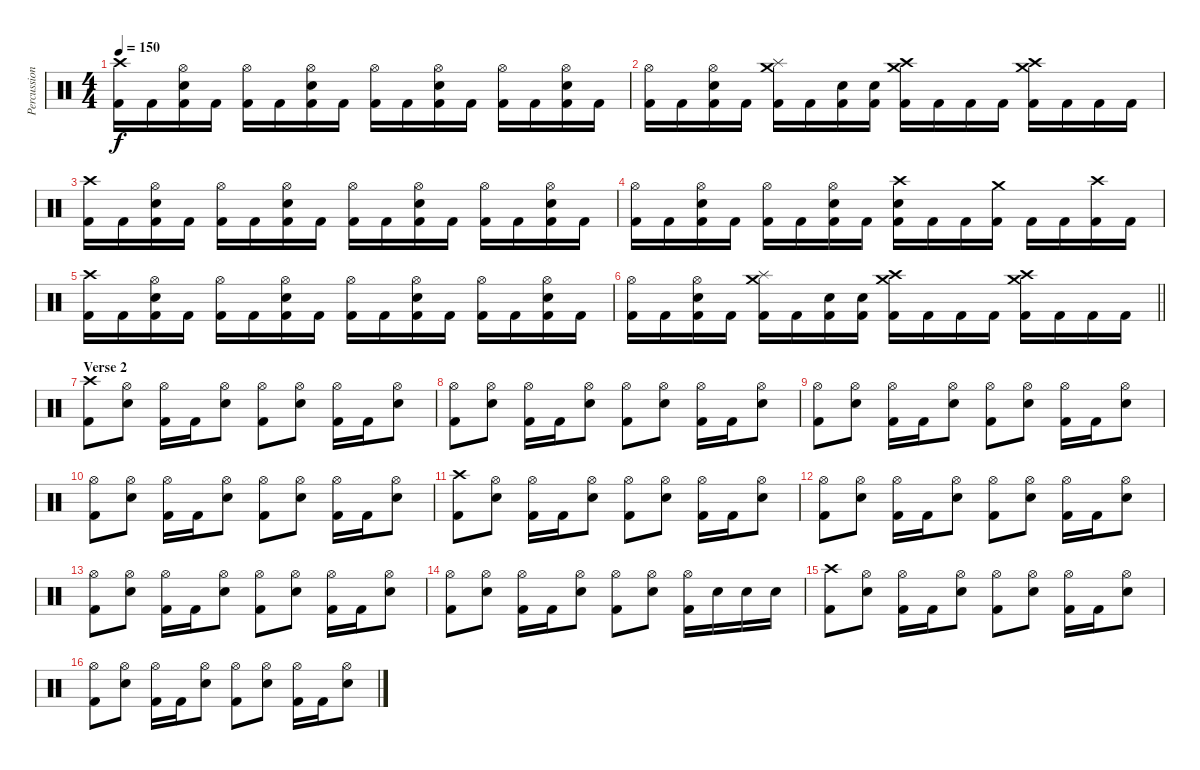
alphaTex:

\track ("Percussion" "Percussion") {instrument percussion}
\staff {score}
\articulation defaults
\ts (4 4)
\tempo 150
\clef neutral
\ks c
("Crash high (hit)" "Kick (hit) 2").16{dy f} "Kick (hit) 2".16 ("Hi-Hat (open)" "Electric Snare (hit)" "Kick (hit) 2").16 "Kick (hit) 2".16 ("Hi-Hat (open)" "Kick (hit) 2").16 "Kick (hit) 2".16 ("Hi-Hat (open)" "Electric Snare (hit)" "Kick (hit) 2").16 "Kick (hit) 2".16 ("Hi-Hat (open)" "Kick (hit) 2").16 "Kick (hit) 2".16 ("Hi-Hat (open)" "Electric Snare (hit)" "Kick (hit) 2").16 "Kick (hit) 2".16 ("Hi-Hat (open)" "Kick (hit) 2").16 "Kick (hit) 2".16 ("Hi-Hat (open)" "Electric Snare (hit)" "Kick (hit) 2").16 "Kick (hit) 2".16 |
("Hi-Hat (open)" "Kick (hit) 2").16 "Kick (hit) 2".16 ("Hi-Hat (open)" "Electric Snare (hit)" "Kick (hit) 2").16 "Kick (hit) 2".16 ("Splash (hit)" "Crash medium (hit)" "Kick (hit) 2").16 "Kick (hit) 2".16 ("Electric Snare (hit)" "Kick (hit) 2").16 ("Electric Snare (hit)" "Kick (hit) 2").16 ("Crash high (hit)" "Crash medium (hit)" "Kick (hit) 2").16 "Kick (hit) 2".16 "Kick (hit) 2".16 "Kick (hit) 2".16 ("Crash medium (hit)" "Crash high (hit)" "Kick (hit) 2").16 "Kick (hit) 2".16 "Kick (hit) 2".16 "Kick (hit) 2".16 |
("Crash high (hit)" "Kick (hit) 2").16 "Kick (hit) 2".16 ("Hi-Hat (open)" "Electric Snare (hit)" "Kick (hit) 2").16 "Kick (hit) 2".16 ("Hi-Hat (open)" "Kick (hit) 2").16 "Kick (hit) 2".16 ("Hi-Hat (open)" "Electric Snare (hit)" "Kick (hit) 2").16 "Kick (hit) 2".16 ("Hi-Hat (open)" "Kick (hit) 2").16 "Kick (hit) 2".16 ("Hi-Hat (open)" "Electric Snare (hit)" "Kick (hit) 2").16 "Kick (hit) 2".16 ("Hi-Hat (open)" "Kick (hit) 2").16 "Kick (hit) 2".16 ("Hi-Hat (open)" "Electric Snare (hit)" "Kick (hit) 2").16 "Kick (hit) 2".16 |
("Hi-Hat (open)" "Kick (hit) 2").16 "Kick (hit) 2".16 ("Hi-Hat (open)" "Electric Snare (hit)" "Kick (hit) 2").16 "Kick (hit) 2".16 ("Hi-Hat (open)" "Kick (hit) 2").16 "Kick (hit) 2".16 ("Hi-Hat (open)" "Electric Snare (hit)" "Kick (hit) 2").16 "Kick (hit) 2".16 ("Crash high (hit)" "Electric Snare (hit)" "Kick (hit) 2").16 "Kick (hit) 2".16 "Kick (hit) 2".16 ("Crash medium (hit)" "Kick (hit) 2").16 "Kick (hit) 2".16 "Kick (hit) 2".16 ("Crash high (hit)" "Kick (hit) 2").16 "Kick (hit) 2".16 |
("Crash high (hit)" "Kick (hit) 2").16 "Kick (hit) 2".16 ("Hi-Hat (open)" "Electric Snare (hit)" "Kick (hit) 2").16 "Kick (hit) 2".16 ("Hi-Hat (open)" "Kick (hit) 2").16 "Kick (hit) 2".16 ("Hi-Hat (open)" "Electric Snare (hit)" "Kick (hit) 2").16 "Kick (hit) 2".16 ("Hi-Hat (open)" "Kick (hit) 2").16 "Kick (hit) 2".16 ("Hi-Hat (open)" "Electric Snare (hit)" "Kick (hit) 2").16 "Kick (hit) 2".16 ("Hi-Hat (open)" "Kick (hit) 2").16 "Kick (hit) 2".16 ("Hi-Hat (open)" "Electric Snare (hit)" "Kick (hit) 2").16 "Kick (hit) 2".16 |
\barLineRight lightlight
("Hi-Hat (open)" "Kick (hit) 2").16 "Kick (hit) 2".16 ("Hi-Hat (open)" "Electric Snare (hit)" "Kick (hit) 2").16 "Kick (hit) 2".16 ("Splash (hit)" "Crash medium (hit)" "Kick (hit) 2").16 "Kick (hit) 2".16 ("Electric Snare (hit)" "Kick (hit) 2").16 ("Electric Snare (hit)" "Kick (hit) 2").16 ("Crash high (hit)" "Crash medium (hit)" "Kick (hit) 2").16 "Kick (hit) 2".16 "Kick (hit) 2".16 "Kick (hit) 2".16 ("Crash medium (hit)" "Crash high (hit)" "Kick (hit) 2").16 "Kick (hit) 2".16 "Kick (hit) 2".16 "Kick (hit) 2".16 |
\section ("" "Verse 2")
("Crash high (hit)" "Kick (hit) 2").8 ("Hi-Hat (open)" "Electric Snare (hit)").8 ("Hi-Hat (open)" "Kick (hit) 2").16 "Kick (hit) 2".16 ("Hi-Hat (open)" "Electric Snare (hit)").8 ("Hi-Hat (open)" "Kick (hit) 2").8 ("Hi-Hat (open)" "Electric Snare (hit)").8 ("Hi-Hat (open)" "Kick (hit) 2").16 "Kick (hit) 2".16 ("Hi-Hat (open)" "Electric Snare (hit)").8 |
("Hi-Hat (open)" "Kick (hit) 2").8 ("Hi-Hat (open)" "Electric Snare (hit)").8 ("Hi-Hat (open)" "Kick (hit) 2").16 "Kick (hit) 2".16 ("Hi-Hat (open)" "Electric Snare (hit)").8 ("Hi-Hat (open)" "Kick (hit) 2").8 ("Hi-Hat (open)" "Electric Snare (hit)").8 ("Hi-Hat (open)" "Kick (hit) 2").16 "Kick (hit) 2".16 ("Hi-Hat (open)" "Electric Snare (hit)").8 |
("Hi-Hat (open)" "Kick (hit) 2").8 ("Hi-Hat (open)" "Electric Snare (hit)").8 ("Hi-Hat (open)" "Kick (hit) 2").16 "Kick (hit) 2".16 ("Hi-Hat (open)" "Electric Snare (hit)").8 ("Hi-Hat (open)" "Kick (hit) 2").8 ("Hi-Hat (open)" "Electric Snare (hit)").8 ("Hi-Hat (open)" "Kick (hit) 2").16 "Kick (hit) 2".16 ("Hi-Hat (open)" "Electric Snare (hit)").8 |
("Hi-Hat (open)" "Kick (hit) 2").8 ("Hi-Hat (open)" "Electric Snare (hit)").8 ("Hi-Hat (open)" "Kick (hit) 2").16 "Kick (hit) 2".16 ("Hi-Hat (open)" "Electric Snare (hit)").8 ("Hi-Hat (open)" "Kick (hit) 2").8 ("Hi-Hat (open)" "Electric Snare (hit)").8 ("Hi-Hat (open)" "Kick (hit) 2").16 "Kick (hit) 2".16 ("Hi-Hat (open)" "Electric Snare (hit)").8 |
("Crash high (hit)" "Kick (hit) 2").8 ("Hi-Hat (open)" "Electric Snare (hit)").8 ("Hi-Hat (open)" "Kick (hit) 2").16 "Kick (hit) 2".16 ("Hi-Hat (open)" "Electric Snare (hit)").8 ("Hi-Hat (open)" "Kick (hit) 2").8 ("Hi-Hat (open)" "Electric Snare (hit)").8 ("Hi-Hat (open)" "Kick (hit) 2").16 "Kick (hit) 2".16 ("Hi-Hat (open)" "Electric Snare (hit)").8 |
("Hi-Hat (open)" "Kick (hit) 2").8 ("Hi-Hat (open)" "Electric Snare (hit)").8 ("Hi-Hat (open)" "Kick (hit) 2").16 "Kick (hit) 2".16 ("Hi-Hat (open)" "Electric Snare (hit)").8 ("Hi-Hat (open)" "Kick (hit) 2").8 ("Hi-Hat (open)" "Electric Snare (hit)").8 ("Hi-Hat (open)" "Kick (hit) 2").16 "Kick (hit) 2".16 ("Hi-Hat (open)" "Electric Snare (hit)").8 |
("Hi-Hat (open)" "Kick (hit) 2").8 ("Hi-Hat (open)" "Electric Snare (hit)").8 ("Hi-Hat (open)" "Kick (hit) 2").16 "Kick (hit) 2".16 ("Hi-Hat (open)" "Electric Snare (hit)").8 ("Hi-Hat (open)" "Kick (hit) 2").8 ("Hi-Hat (open)" "Electric Snare (hit)").8 ("Hi-Hat (open)" "Kick (hit) 2").16 "Kick (hit) 2".16 ("Hi-Hat (open)" "Electric Snare (hit)").8 |
("Hi-Hat (open)" "Kick (hit) 2").8 ("Hi-Hat (open)" "Electric Snare (hit)").8 ("Hi-Hat (open)" "Kick (hit) 2").16 "Kick (hit) 2".16 ("Hi-Hat (open)" "Electric Snare (hit)").8 ("Hi-Hat (open)" "Kick (hit) 2").8 ("Hi-Hat (open)" "Electric Snare (hit)").8 ("Hi-Hat (open)" "Kick (hit) 2").16 "Electric Snare (hit)".16 "Electric Snare (hit)".16 "Electric Snare (hit)".16 |
("Crash high (hit)" "Kick (hit) 2").8 ("Hi-Hat (open)" "Electric Snare (hit)").8 ("Hi-Hat (open)" "Kick (hit) 2").16 "Kick (hit) 2".16 ("Hi-Hat (open)" "Electric Snare (hit)").8 ("Hi-Hat (open)" "Kick (hit) 2").8 ("Hi-Hat (open)" "Electric Snare (hit)").8 ("Hi-Hat (open)" "Kick (hit) 2").16 "Kick (hit) 2".16 ("Hi-Hat (open)" "Electric Snare (hit)").8 |
("Hi-Hat (open)" "Kick (hit) 2").8 ("Hi-Hat (open)" "Electric Snare (hit)").8 ("Hi-Hat (open)" "Kick (hit) 2").16 "Kick (hit) 2".16 ("Hi-Hat (open)" "Electric Snare (hit)").8 ("Hi-Hat (open)" "Kick (hit) 2").8 ("Hi-Hat (open)" "Electric Snare (hit)").8 ("Hi-Hat (open)" "Kick (hit) 2").16 "Kick (hit) 2".16 ("Hi-Hat (open)" "Electric Snare (hit)").8
